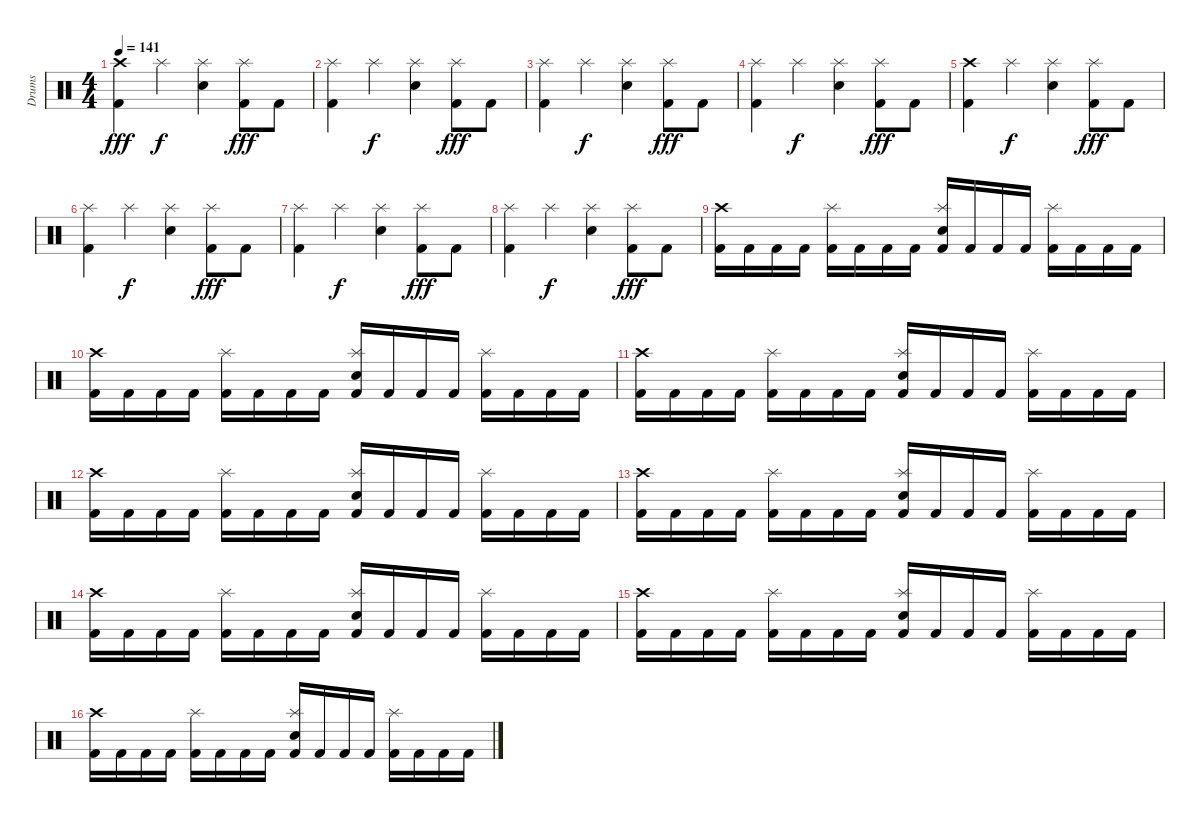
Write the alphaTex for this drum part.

\track ("Drums" "Drums") {instrument percussion}
\staff {score}
\articulation defaults
\ts (4 4)
\tempo 141
\clef neutral
\ks c
("Crash high (hit)" "Kick (hit) 2").4{dy fff} "Splash (hit)".4{dy f} ("Splash (hit)" "Electric Snare (hit)").4 ("Splash (hit)" "Kick (hit) 2").8{dy fff} "Kick (hit) 2".8 |
("Splash (hit)" "Kick (hit) 2").4 "Splash (hit)".4{dy f} ("Splash (hit)" "Electric Snare (hit)").4 ("Splash (hit)" "Kick (hit) 2").8{dy fff} "Kick (hit) 2".8 |
("Splash (hit)" "Kick (hit) 2").4 "Splash (hit)".4{dy f} ("Splash (hit)" "Electric Snare (hit)").4 ("Splash (hit)" "Kick (hit) 2").8{dy fff} "Kick (hit) 2".8 |
("Splash (hit)" "Kick (hit) 2").4 "Splash (hit)".4{dy f} ("Splash (hit)" "Electric Snare (hit)").4 ("Splash (hit)" "Kick (hit) 2").8{dy fff} "Kick (hit) 2".8 |
("Crash high (hit)" "Kick (hit) 2").4 "Splash (hit)".4{dy f} ("Splash (hit)" "Electric Snare (hit)").4 ("Splash (hit)" "Kick (hit) 2").8{dy fff} "Kick (hit) 2".8 |
("Splash (hit)" "Kick (hit) 2").4 "Splash (hit)".4{dy f} ("Splash (hit)" "Electric Snare (hit)").4 ("Splash (hit)" "Kick (hit) 2").8{dy fff} "Kick (hit) 2".8 |
("Splash (hit)" "Kick (hit) 2").4 "Splash (hit)".4{dy f} ("Splash (hit)" "Electric Snare (hit)").4 ("Splash (hit)" "Kick (hit) 2").8{dy fff} "Kick (hit) 2".8 |
("Splash (hit)" "Kick (hit) 2").4 "Splash (hit)".4{dy f} ("Splash (hit)" "Electric Snare (hit)").4 ("Splash (hit)" "Kick (hit) 2").8{dy fff} "Kick (hit) 2".8 |
("Crash high (hit)" "Kick (hit) 2").16 "Kick (hit) 2".16 "Kick (hit) 2".16 "Kick (hit) 2".16 ("Splash (hit)" "Kick (hit) 2").16 "Kick (hit) 2".16 "Kick (hit) 2".16 "Kick (hit) 2".16 ("Splash (hit)" "Electric Snare (hit)" "Kick (hit) 2").16 "Kick (hit) 2".16 "Kick (hit) 2".16 "Kick (hit) 2".16 ("Splash (hit)" "Kick (hit) 2").16 "Kick (hit) 2".16 "Kick (hit) 2".16 "Kick (hit) 2".16 |
("Crash high (hit)" "Kick (hit) 2").16 "Kick (hit) 2".16 "Kick (hit) 2".16 "Kick (hit) 2".16 ("Splash (hit)" "Kick (hit) 2").16 "Kick (hit) 2".16 "Kick (hit) 2".16 "Kick (hit) 2".16 ("Splash (hit)" "Electric Snare (hit)" "Kick (hit) 2").16 "Kick (hit) 2".16 "Kick (hit) 2".16 "Kick (hit) 2".16 ("Splash (hit)" "Kick (hit) 2").16 "Kick (hit) 2".16 "Kick (hit) 2".16 "Kick (hit) 2".16 |
("Crash high (hit)" "Kick (hit) 2").16 "Kick (hit) 2".16 "Kick (hit) 2".16 "Kick (hit) 2".16 ("Splash (hit)" "Kick (hit) 2").16 "Kick (hit) 2".16 "Kick (hit) 2".16 "Kick (hit) 2".16 ("Splash (hit)" "Electric Snare (hit)" "Kick (hit) 2").16 "Kick (hit) 2".16 "Kick (hit) 2".16 "Kick (hit) 2".16 ("Splash (hit)" "Kick (hit) 2").16 "Kick (hit) 2".16 "Kick (hit) 2".16 "Kick (hit) 2".16 |
("Crash high (hit)" "Kick (hit) 2").16 "Kick (hit) 2".16 "Kick (hit) 2".16 "Kick (hit) 2".16 ("Splash (hit)" "Kick (hit) 2").16 "Kick (hit) 2".16 "Kick (hit) 2".16 "Kick (hit) 2".16 ("Splash (hit)" "Electric Snare (hit)" "Kick (hit) 2").16 "Kick (hit) 2".16 "Kick (hit) 2".16 "Kick (hit) 2".16 ("Splash (hit)" "Kick (hit) 2").16 "Kick (hit) 2".16 "Kick (hit) 2".16 "Kick (hit) 2".16 |
("Crash high (hit)" "Kick (hit) 2").16 "Kick (hit) 2".16 "Kick (hit) 2".16 "Kick (hit) 2".16 ("Splash (hit)" "Kick (hit) 2").16 "Kick (hit) 2".16 "Kick (hit) 2".16 "Kick (hit) 2".16 ("Splash (hit)" "Electric Snare (hit)" "Kick (hit) 2").16 "Kick (hit) 2".16 "Kick (hit) 2".16 "Kick (hit) 2".16 ("Splash (hit)" "Kick (hit) 2").16 "Kick (hit) 2".16 "Kick (hit) 2".16 "Kick (hit) 2".16 |
("Crash high (hit)" "Kick (hit) 2").16 "Kick (hit) 2".16 "Kick (hit) 2".16 "Kick (hit) 2".16 ("Splash (hit)" "Kick (hit) 2").16 "Kick (hit) 2".16 "Kick (hit) 2".16 "Kick (hit) 2".16 ("Splash (hit)" "Electric Snare (hit)" "Kick (hit) 2").16 "Kick (hit) 2".16 "Kick (hit) 2".16 "Kick (hit) 2".16 ("Splash (hit)" "Kick (hit) 2").16 "Kick (hit) 2".16 "Kick (hit) 2".16 "Kick (hit) 2".16 |
("Crash high (hit)" "Kick (hit) 2").16 "Kick (hit) 2".16 "Kick (hit) 2".16 "Kick (hit) 2".16 ("Splash (hit)" "Kick (hit) 2").16 "Kick (hit) 2".16 "Kick (hit) 2".16 "Kick (hit) 2".16 ("Splash (hit)" "Electric Snare (hit)" "Kick (hit) 2").16 "Kick (hit) 2".16 "Kick (hit) 2".16 "Kick (hit) 2".16 ("Splash (hit)" "Kick (hit) 2").16 "Kick (hit) 2".16 "Kick (hit) 2".16 "Kick (hit) 2".16 |
("Crash high (hit)" "Kick (hit) 2").16 "Kick (hit) 2".16 "Kick (hit) 2".16 "Kick (hit) 2".16 ("Splash (hit)" "Kick (hit) 2").16 "Kick (hit) 2".16 "Kick (hit) 2".16 "Kick (hit) 2".16 ("Splash (hit)" "Electric Snare (hit)" "Kick (hit) 2").16 "Kick (hit) 2".16 "Kick (hit) 2".16 "Kick (hit) 2".16 ("Splash (hit)" "Kick (hit) 2").16 "Kick (hit) 2".16 "Kick (hit) 2".16 "Kick (hit) 2".16
